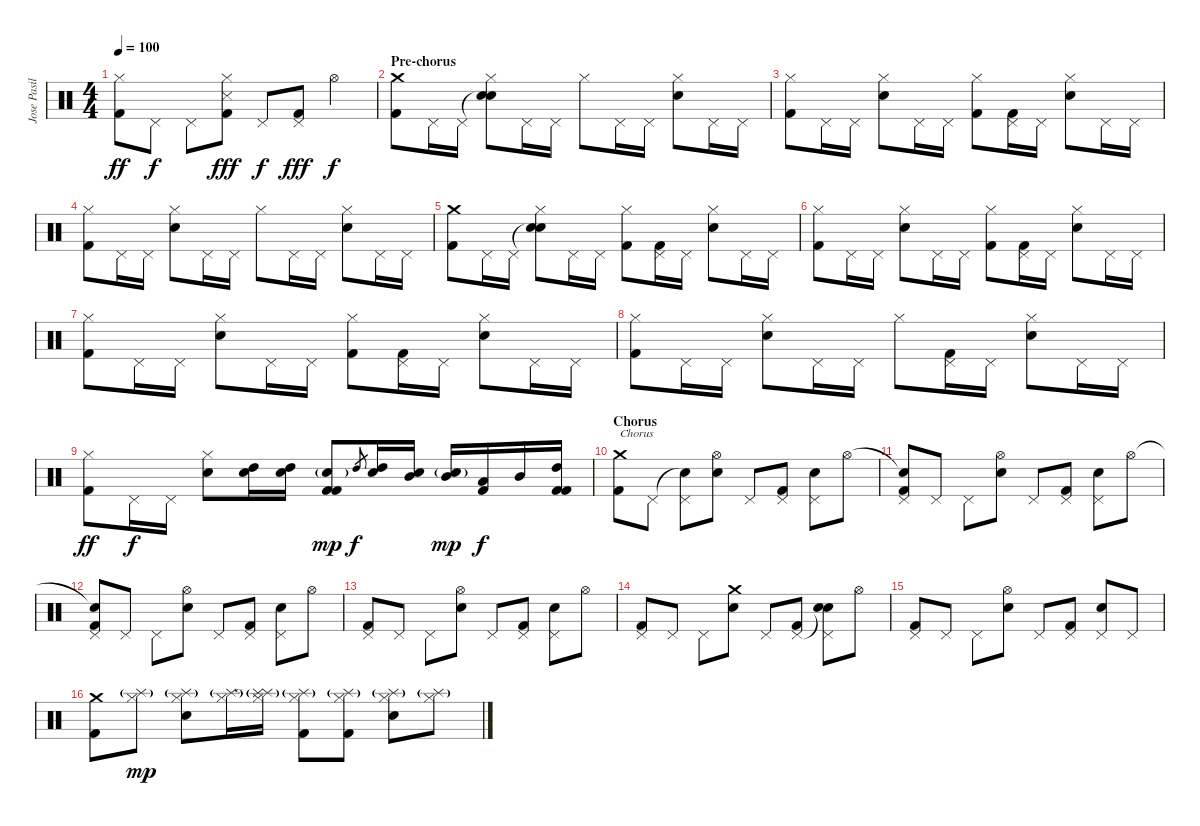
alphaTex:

\track ("Jose Pasillas III" "Jose Pasil") {instrument percussion}
\staff {score}
\articulation defaults
\ts (4 4)
\tempo 100
\clef neutral
\ks c
("Hi-Hat (closed)" "Kick (hit) 2").8{dy ff} "Pedal Hi-Hat (hit)".8{dy f} "Pedal Hi-Hat (hit)".8 ("Hi-Hat (closed)" "Snare (side stick) 3" "Kick (hit) 2").8{dy fff} "Pedal Hi-Hat (hit)".8{dy f} ("Pedal Hi-Hat (hit)" "Kick (hit) 2").8{dy fff} "Hi-Hat (open)".4{dy f} |
\section ("" "Pre-chorus")
("Crash medium (hit)" "Kick (hit) 2").8 "Pedal Hi-Hat (hit)".16 "Pedal Hi-Hat (hit)".16 ("Snare (hit)"{t} "Hi-Hat (closed)" "Electric Snare (hit)").8 "Pedal Hi-Hat (hit)".16 "Pedal Hi-Hat (hit)".16 "Hi-Hat (closed)".8 "Pedal Hi-Hat (hit)".16 "Pedal Hi-Hat (hit)".16 ("Hi-Hat (closed)" "Electric Snare (hit)").8 "Pedal Hi-Hat (hit)".16 "Pedal Hi-Hat (hit)".16 |
("Hi-Hat (closed)" "Kick (hit) 2").8 "Pedal Hi-Hat (hit)".16 "Pedal Hi-Hat (hit)".16 ("Hi-Hat (closed)" "Electric Snare (hit)").8 "Pedal Hi-Hat (hit)".16 "Pedal Hi-Hat (hit)".16 ("Hi-Hat (closed)" "Kick (hit) 2").8 ("Pedal Hi-Hat (hit)" "Kick (hit) 2").16 "Pedal Hi-Hat (hit)".16 ("Hi-Hat (closed)" "Electric Snare (hit)").8 "Pedal Hi-Hat (hit)".16 "Pedal Hi-Hat (hit)".16 |
("Hi-Hat (closed)" "Kick (hit) 2").8 "Pedal Hi-Hat (hit)".16 "Pedal Hi-Hat (hit)".16 ("Hi-Hat (closed)" "Electric Snare (hit)").8 "Pedal Hi-Hat (hit)".16 "Pedal Hi-Hat (hit)".16 "Hi-Hat (closed)".8 "Pedal Hi-Hat (hit)".16 "Pedal Hi-Hat (hit)".16 ("Hi-Hat (closed)" "Electric Snare (hit)").8 "Pedal Hi-Hat (hit)".16 "Pedal Hi-Hat (hit)".16 |
("Crash medium (hit)" "Kick (hit) 2").8 "Pedal Hi-Hat (hit)".16 "Pedal Hi-Hat (hit)".16 ("Snare (hit)"{t} "Hi-Hat (closed)" "Electric Snare (hit)").8 "Pedal Hi-Hat (hit)".16 "Pedal Hi-Hat (hit)".16 ("Hi-Hat (closed)" "Kick (hit) 2").8 ("Pedal Hi-Hat (hit)" "Kick (hit) 2").16 "Pedal Hi-Hat (hit)".16 ("Hi-Hat (closed)" "Electric Snare (hit)").8 "Pedal Hi-Hat (hit)".16 "Pedal Hi-Hat (hit)".16 |
("Hi-Hat (closed)" "Kick (hit) 2").8 "Pedal Hi-Hat (hit)".16 "Pedal Hi-Hat (hit)".16 ("Hi-Hat (closed)" "Electric Snare (hit)").8 "Pedal Hi-Hat (hit)".16 "Pedal Hi-Hat (hit)".16 ("Hi-Hat (closed)" "Kick (hit) 2").8 ("Pedal Hi-Hat (hit)" "Kick (hit) 2").16 "Pedal Hi-Hat (hit)".16 ("Hi-Hat (closed)" "Electric Snare (hit)").8 "Pedal Hi-Hat (hit)".16 "Pedal Hi-Hat (hit)".16 |
("Hi-Hat (closed)" "Kick (hit) 2").8 "Pedal Hi-Hat (hit)".16 "Pedal Hi-Hat (hit)".16 ("Hi-Hat (closed)" "Electric Snare (hit)").8 "Pedal Hi-Hat (hit)".16 "Pedal Hi-Hat (hit)".16 ("Hi-Hat (closed)" "Kick (hit) 2").8 ("Pedal Hi-Hat (hit)" "Kick (hit) 2").16 "Pedal Hi-Hat (hit)".16 ("Hi-Hat (closed)" "Electric Snare (hit)").8 "Pedal Hi-Hat (hit)".16 "Pedal Hi-Hat (hit)".16 |
("Hi-Hat (closed)" "Kick (hit) 2").8 "Pedal Hi-Hat (hit)".16 "Pedal Hi-Hat (hit)".16 ("Hi-Hat (closed)" "Electric Snare (hit)").8 "Pedal Hi-Hat (hit)".16 "Pedal Hi-Hat (hit)".16 "Hi-Hat (closed)".8 ("Pedal Hi-Hat (hit)" "Kick (hit) 2").16 "Pedal Hi-Hat (hit)".16 ("Hi-Hat (closed)" "Electric Snare (hit)").8 "Pedal Hi-Hat (hit)".16 "Pedal Hi-Hat (hit)".16 |
("Hi-Hat (closed)" "Kick (hit) 2").8{dy ff} "Pedal Hi-Hat (hit)".16{dy f} "Pedal Hi-Hat (hit)".16 ("Hi-Hat (closed)" "Electric Snare (hit)").8 ("High Tom (hit)" "Electric Snare (hit)").16 ("High Tom (hit)" "Electric Snare (hit)").16 ("Electric Snare (hit)"{g} "Kick (hit) 2" "Kick (hit) 2").8{dy mp} "High Tom (hit)".8{gr dy f} ("High Tom (hit)" "Electric Snare (hit)").16 ("Mid Tom (hit)" "Electric Snare (hit)").16 ("Mid Tom (hit)" "Electric Snare (hit)"{g}).16{dy mp} ("Low Tom (hit)" "Kick (hit) 2").16{dy f} "Mid Tom (hit)".16 ("High Tom (hit)" "Kick (hit) 2" "Kick (hit) 2").16 |
\section ("" "Chorus")
("Crash medium (hit)" "Kick (hit) 2").8{txt "Chorus"} "Pedal Hi-Hat (hit)".8 ("Snare (hit)"{t} "Pedal Hi-Hat (hit)").8 ("Hi-Hat (open)" "Electric Snare (hit)").8 "Pedal Hi-Hat (hit)".8 ("Pedal Hi-Hat (hit)" "Kick (hit) 2").8 ("Pedal Hi-Hat (hit)" "Electric Snare (hit)").8 "Hi-Hat (open)".8 |
("Snare (hit)"{t} "Pedal Hi-Hat (hit)" "Kick (hit) 2").8 "Pedal Hi-Hat (hit)".8 "Pedal Hi-Hat (hit)".8 ("Hi-Hat (open)" "Electric Snare (hit)").8 "Pedal Hi-Hat (hit)".8 ("Pedal Hi-Hat (hit)" "Kick (hit) 2").8 ("Pedal Hi-Hat (hit)" "Electric Snare (hit)").8 "Hi-Hat (open)".8 |
("Snare (hit)"{t} "Pedal Hi-Hat (hit)" "Kick (hit) 2").8 "Pedal Hi-Hat (hit)".8 "Pedal Hi-Hat (hit)".8 ("Hi-Hat (open)" "Electric Snare (hit)").8 "Pedal Hi-Hat (hit)".8 ("Pedal Hi-Hat (hit)" "Kick (hit) 2").8 ("Pedal Hi-Hat (hit)" "Electric Snare (hit)").8 "Hi-Hat (open)".8 |
("Pedal Hi-Hat (hit)" "Kick (hit) 2").8 "Pedal Hi-Hat (hit)".8 "Pedal Hi-Hat (hit)".8 ("Hi-Hat (open)" "Electric Snare (hit)").8 "Pedal Hi-Hat (hit)".8 ("Pedal Hi-Hat (hit)" "Kick (hit) 2").8 ("Pedal Hi-Hat (hit)" "Electric Snare (hit)").8 "Hi-Hat (open)".8 |
("Pedal Hi-Hat (hit)" "Kick (hit) 2").8 "Pedal Hi-Hat (hit)".8 "Pedal Hi-Hat (hit)".8 ("Crash medium (hit)" "Electric Snare (hit)").8 "Pedal Hi-Hat (hit)".8 ("Pedal Hi-Hat (hit)" "Kick (hit) 2").8 ("Snare (hit)"{t} "Pedal Hi-Hat (hit)" "Electric Snare (hit)").8 "Hi-Hat (open)".8 |
("Pedal Hi-Hat (hit)" "Kick (hit) 2").8 "Pedal Hi-Hat (hit)".8 "Pedal Hi-Hat (hit)".8 ("Hi-Hat (open)" "Electric Snare (hit)").8 "Pedal Hi-Hat (hit)".8 ("Pedal Hi-Hat (hit)" "Kick (hit) 2").8 ("Pedal Hi-Hat (hit)" "Electric Snare (hit)").8 "Pedal Hi-Hat (hit)".8 |
("Crash medium (hit)" "Kick (hit) 2").8 ("Splash (hit)"{g} "Hi-Hat (closed)").8{dy mp} ("Splash (hit)"{g} "Hi-Hat (closed)" "Electric Snare (hit)").8 ("Splash (hit)"{g} "Hi-Hat (closed)").16 ("Splash (hit)"{g} "Splash (hit)"{t} "Hi-Hat (closed)").16 ("Splash (hit)"{g} "Hi-Hat (closed)" "Kick (hit) 2").8 ("Splash (hit)"{g} "Hi-Hat (closed)" "Kick (hit) 2").8 ("Splash (hit)"{g} "Hi-Hat (closed)" "Electric Snare (hit)").8 ("Splash (hit)"{g} "Hi-Hat (closed)").8
